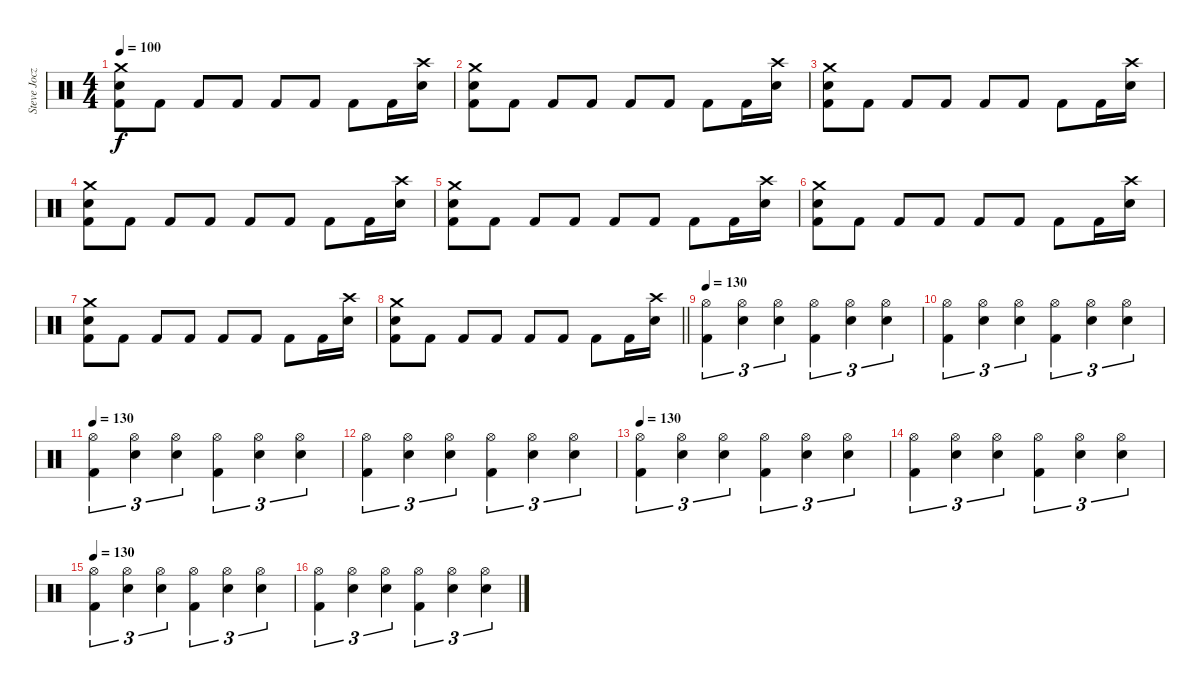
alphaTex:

\track ("Steve Jocz" "Steve Jocz") {instrument percussion}
\staff {score}
\articulation defaults
\ts (4 4)
\tempo 100
\clef neutral
\ks c
("Crash medium (hit)" "Electric Snare (hit)" "Kick (hit) 2").8{dy f} "Kick (hit) 2".8 "Kick (hit) 2".8 "Kick (hit) 2".8 "Kick (hit) 2".8 "Kick (hit) 2".8 "Kick (hit) 2".8 "Kick (hit) 2".16 ("Crash high (hit)" "Electric Snare (hit)").16 |
("Crash medium (hit)" "Electric Snare (hit)" "Kick (hit) 2").8 "Kick (hit) 2".8 "Kick (hit) 2".8 "Kick (hit) 2".8 "Kick (hit) 2".8 "Kick (hit) 2".8 "Kick (hit) 2".8 "Kick (hit) 2".16 ("Crash high (hit)" "Electric Snare (hit)").16 |
("Crash medium (hit)" "Electric Snare (hit)" "Kick (hit) 2").8 "Kick (hit) 2".8 "Kick (hit) 2".8 "Kick (hit) 2".8 "Kick (hit) 2".8 "Kick (hit) 2".8 "Kick (hit) 2".8 "Kick (hit) 2".16 ("Crash high (hit)" "Electric Snare (hit)").16 |
("Crash medium (hit)" "Electric Snare (hit)" "Kick (hit) 2").8 "Kick (hit) 2".8 "Kick (hit) 2".8 "Kick (hit) 2".8 "Kick (hit) 2".8 "Kick (hit) 2".8 "Kick (hit) 2".8 "Kick (hit) 2".16 ("Crash high (hit)" "Electric Snare (hit)").16 |
("Crash medium (hit)" "Electric Snare (hit)" "Kick (hit) 2").8 "Kick (hit) 2".8 "Kick (hit) 2".8 "Kick (hit) 2".8 "Kick (hit) 2".8 "Kick (hit) 2".8 "Kick (hit) 2".8 "Kick (hit) 2".16 ("Crash high (hit)" "Electric Snare (hit)").16 |
("Crash medium (hit)" "Electric Snare (hit)" "Kick (hit) 2").8 "Kick (hit) 2".8 "Kick (hit) 2".8 "Kick (hit) 2".8 "Kick (hit) 2".8 "Kick (hit) 2".8 "Kick (hit) 2".8 "Kick (hit) 2".16 ("Crash high (hit)" "Electric Snare (hit)").16 |
("Crash medium (hit)" "Electric Snare (hit)" "Kick (hit) 2").8 "Kick (hit) 2".8 "Kick (hit) 2".8 "Kick (hit) 2".8 "Kick (hit) 2".8 "Kick (hit) 2".8 "Kick (hit) 2".8 "Kick (hit) 2".16 ("Crash high (hit)" "Electric Snare (hit)").16 |
\barLineRight lightlight
("Crash medium (hit)" "Electric Snare (hit)" "Kick (hit) 2").8 "Kick (hit) 2".8 "Kick (hit) 2".8 "Kick (hit) 2".8 "Kick (hit) 2".8 "Kick (hit) 2".8 "Kick (hit) 2".8 "Kick (hit) 2".16 ("Crash high (hit)" "Electric Snare (hit)").16 |
\tempo 130
("Hi-Hat (open)" "Kick (hit) 2").4{tu (3 2)} ("Hi-Hat (open)" "Electric Snare (hit)").4{tu (3 2)} ("Hi-Hat (open)" "Electric Snare (hit)").4{tu (3 2)} ("Hi-Hat (open)" "Kick (hit) 2").4{tu (3 2)} ("Hi-Hat (open)" "Electric Snare (hit)").4{tu (3 2)} ("Hi-Hat (open)" "Electric Snare (hit)").4{tu (3 2)} |
("Hi-Hat (open)" "Kick (hit) 2").4{tu (3 2)} ("Hi-Hat (open)" "Electric Snare (hit)").4{tu (3 2)} ("Hi-Hat (open)" "Electric Snare (hit)").4{tu (3 2)} ("Hi-Hat (open)" "Kick (hit) 2").4{tu (3 2)} ("Hi-Hat (open)" "Electric Snare (hit)").4{tu (3 2)} ("Hi-Hat (open)" "Electric Snare (hit)").4{tu (3 2)} |
\tempo 130
("Hi-Hat (open)" "Kick (hit) 2").4{tu (3 2)} ("Hi-Hat (open)" "Electric Snare (hit)").4{tu (3 2)} ("Hi-Hat (open)" "Electric Snare (hit)").4{tu (3 2)} ("Hi-Hat (open)" "Kick (hit) 2").4{tu (3 2)} ("Hi-Hat (open)" "Electric Snare (hit)").4{tu (3 2)} ("Hi-Hat (open)" "Electric Snare (hit)").4{tu (3 2)} |
("Hi-Hat (open)" "Kick (hit) 2").4{tu (3 2)} ("Hi-Hat (open)" "Electric Snare (hit)").4{tu (3 2)} ("Hi-Hat (open)" "Electric Snare (hit)").4{tu (3 2)} ("Hi-Hat (open)" "Kick (hit) 2").4{tu (3 2)} ("Hi-Hat (open)" "Electric Snare (hit)").4{tu (3 2)} ("Hi-Hat (open)" "Electric Snare (hit)").4{tu (3 2)} |
\tempo 130
("Hi-Hat (open)" "Kick (hit) 2").4{tu (3 2)} ("Hi-Hat (open)" "Electric Snare (hit)").4{tu (3 2)} ("Hi-Hat (open)" "Electric Snare (hit)").4{tu (3 2)} ("Hi-Hat (open)" "Kick (hit) 2").4{tu (3 2)} ("Hi-Hat (open)" "Electric Snare (hit)").4{tu (3 2)} ("Hi-Hat (open)" "Electric Snare (hit)").4{tu (3 2)} |
("Hi-Hat (open)" "Kick (hit) 2").4{tu (3 2)} ("Hi-Hat (open)" "Electric Snare (hit)").4{tu (3 2)} ("Hi-Hat (open)" "Electric Snare (hit)").4{tu (3 2)} ("Hi-Hat (open)" "Kick (hit) 2").4{tu (3 2)} ("Hi-Hat (open)" "Electric Snare (hit)").4{tu (3 2)} ("Hi-Hat (open)" "Electric Snare (hit)").4{tu (3 2)} |
\tempo 130
("Hi-Hat (open)" "Kick (hit) 2").4{tu (3 2)} ("Hi-Hat (open)" "Electric Snare (hit)").4{tu (3 2)} ("Hi-Hat (open)" "Electric Snare (hit)").4{tu (3 2)} ("Hi-Hat (open)" "Kick (hit) 2").4{tu (3 2)} ("Hi-Hat (open)" "Electric Snare (hit)").4{tu (3 2)} ("Hi-Hat (open)" "Electric Snare (hit)").4{tu (3 2)} |
("Hi-Hat (open)" "Kick (hit) 2").4{tu (3 2)} ("Hi-Hat (open)" "Electric Snare (hit)").4{tu (3 2)} ("Hi-Hat (open)" "Electric Snare (hit)").4{tu (3 2)} ("Hi-Hat (open)" "Kick (hit) 2").4{tu (3 2)} ("Hi-Hat (open)" "Electric Snare (hit)").4{tu (3 2)} ("Hi-Hat (open)" "Electric Snare (hit)").4{tu (3 2)}
